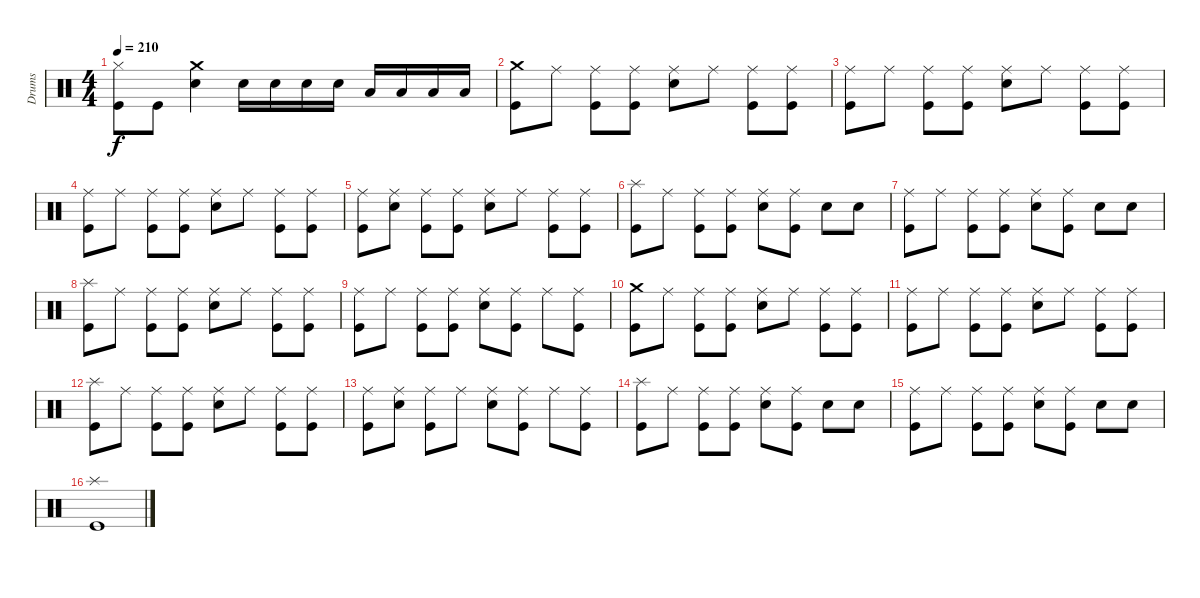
\track ("Drums" "Drums") {instrument percussion}
\staff {score}
\articulation defaults
\ts (4 4)
\tempo 210
\clef neutral
\ks c
("Hi-Hat (closed)" "Kick (hit)").8{dy f} "Kick (hit)".8 ("Crash medium (hit)" "Electric Snare (hit)").4 "Electric Snare (hit)".16 "Electric Snare (hit)".16 "Electric Snare (hit)".16 "Electric Snare (hit)".16 "Low Tom (hit)".16 "Low Tom (hit)".16 "Low Tom (hit)".16 "Low Tom (hit)".16 |
("Crash medium (hit)" "Kick (hit)").8 "Ride (middle)".8 ("Ride (middle)" "Kick (hit)").8 ("Ride (middle)" "Kick (hit)").8 ("Ride (middle)" "Electric Snare (hit)").8 "Ride (middle)".8 ("Ride (middle)" "Kick (hit)").8 ("Ride (middle)" "Kick (hit)").8 |
("Ride (middle)" "Kick (hit)").8 "Ride (middle)".8 ("Ride (middle)" "Kick (hit)").8 ("Ride (middle)" "Kick (hit)").8 ("Ride (middle)" "Electric Snare (hit)").8 "Ride (middle)".8 ("Ride (middle)" "Kick (hit)").8 ("Ride (middle)" "Kick (hit)").8 |
("Ride (middle)" "Kick (hit)").8 "Ride (middle)".8 ("Ride (middle)" "Kick (hit)").8 ("Ride (middle)" "Kick (hit)").8 ("Ride (middle)" "Electric Snare (hit)").8 "Ride (middle)".8 ("Ride (middle)" "Kick (hit)").8 ("Ride (middle)" "Kick (hit)").8 |
("Ride (middle)" "Kick (hit)").8 ("Ride (middle)" "Electric Snare (hit)").8 ("Ride (middle)" "Kick (hit)").8 ("Ride (middle)" "Kick (hit)").8 ("Ride (middle)" "Electric Snare (hit)").8 "Ride (middle)".8 ("Ride (middle)" "Kick (hit)").8 ("Ride (middle)" "Kick (hit)").8 |
("Splash (hit)" "Kick (hit)").8 "Ride (middle)".8 ("Ride (middle)" "Kick (hit)").8 ("Ride (middle)" "Kick (hit)").8 ("Ride (middle)" "Electric Snare (hit)").8 ("Ride (middle)" "Kick (hit)").8 "Electric Snare (hit)".8 "Electric Snare (hit)".8 |
("Ride (middle)" "Kick (hit)").8 "Ride (middle)".8 ("Ride (middle)" "Kick (hit)").8 ("Ride (middle)" "Kick (hit)").8 ("Ride (middle)" "Electric Snare (hit)").8 ("Ride (middle)" "Kick (hit)").8 "Electric Snare (hit)".8 "Electric Snare (hit)".8 |
("Splash (hit)" "Kick (hit)").8 "Ride (middle)".8 ("Ride (middle)" "Kick (hit)").8 ("Ride (middle)" "Kick (hit)").8 ("Ride (middle)" "Electric Snare (hit)").8 "Ride (middle)".8 ("Ride (middle)" "Kick (hit)").8 ("Ride (middle)" "Kick (hit)").8 |
("Ride (middle)" "Kick (hit)").8 "Ride (middle)".8 ("Ride (middle)" "Kick (hit)").8 ("Ride (middle)" "Kick (hit)").8 ("Ride (middle)" "Electric Snare (hit)").8 ("Ride (middle)" "Kick (hit)").8 "Ride (middle)".8 ("Ride (middle)" "Kick (hit)").8 |
("Crash medium (hit)" "Kick (hit)").8 "Ride (middle)".8 ("Ride (middle)" "Kick (hit)").8 ("Ride (middle)" "Kick (hit)").8 ("Ride (middle)" "Electric Snare (hit)").8 "Ride (middle)".8 ("Ride (middle)" "Kick (hit)").8 ("Ride (middle)" "Kick (hit)").8 |
("Ride (middle)" "Kick (hit)").8 "Ride (middle)".8 ("Ride (middle)" "Kick (hit)").8 ("Ride (middle)" "Kick (hit)").8 ("Ride (middle)" "Electric Snare (hit)").8 "Ride (middle)".8 ("Ride (middle)" "Kick (hit)").8 ("Ride (middle)" "Kick (hit)").8 |
("Splash (hit)" "Kick (hit)").8 "Ride (middle)".8 ("Ride (middle)" "Kick (hit)").8 ("Ride (middle)" "Kick (hit)").8 ("Ride (middle)" "Electric Snare (hit)").8 "Ride (middle)".8 ("Ride (middle)" "Kick (hit)").8 ("Ride (middle)" "Kick (hit)").8 |
("Ride (middle)" "Kick (hit)").8 ("Ride (middle)" "Electric Snare (hit)").8 ("Ride (middle)" "Kick (hit)").8 "Ride (middle)".8 ("Ride (middle)" "Electric Snare (hit)").8 ("Ride (middle)" "Kick (hit)").8 "Ride (middle)".8 ("Ride (middle)" "Kick (hit)").8 |
("Splash (hit)" "Kick (hit)").8 "Ride (middle)".8 ("Ride (middle)" "Kick (hit)").8 ("Ride (middle)" "Kick (hit)").8 ("Ride (middle)" "Electric Snare (hit)").8 ("Ride (middle)" "Kick (hit)").8 "Electric Snare (hit)".8 "Electric Snare (hit)".8 |
("Ride (middle)" "Kick (hit)").8 "Ride (middle)".8 ("Ride (middle)" "Kick (hit)").8 ("Ride (middle)" "Kick (hit)").8 ("Ride (middle)" "Electric Snare (hit)").8 ("Ride (middle)" "Kick (hit)").8 "Electric Snare (hit)".8 "Electric Snare (hit)".8 |
("Splash (hit)" "Kick (hit)").1
